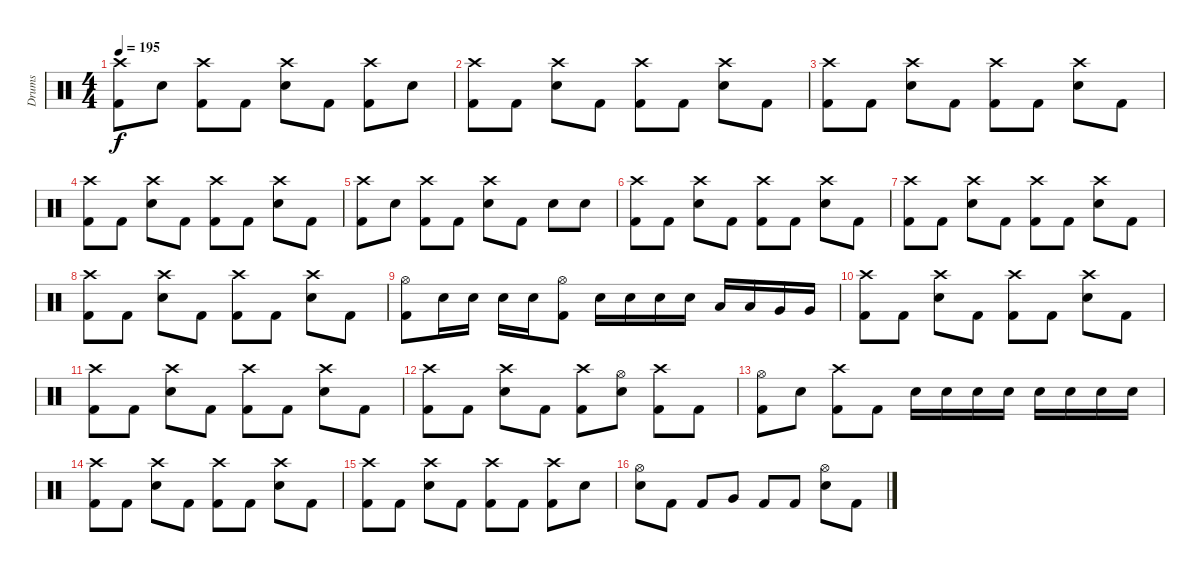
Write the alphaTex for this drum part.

\track ("Drums" "Drums") {instrument percussion}
\staff {score}
\articulation defaults
\ts (4 4)
\tempo 195
\clef neutral
\ks c
("Crash high (hit)" "Kick (hit) 2").8{dy f} "Electric Snare (hit)".8 ("Crash high (hit)" "Kick (hit) 2").8 "Kick (hit) 2".8 ("Crash high (hit)" "Electric Snare (hit)").8 "Kick (hit) 2".8 ("Crash high (hit)" "Kick (hit) 2").8 "Electric Snare (hit)".8 |
("Crash high (hit)" "Kick (hit) 2").8 "Kick (hit) 2".8 ("Crash high (hit)" "Electric Snare (hit)").8 "Kick (hit) 2".8 ("Crash high (hit)" "Kick (hit) 2").8 "Kick (hit) 2".8 ("Crash high (hit)" "Electric Snare (hit)").8 "Kick (hit) 2".8 |
("Crash high (hit)" "Kick (hit) 2").8 "Kick (hit) 2".8 ("Crash high (hit)" "Electric Snare (hit)").8 "Kick (hit) 2".8 ("Crash high (hit)" "Kick (hit) 2").8 "Kick (hit) 2".8 ("Crash high (hit)" "Electric Snare (hit)").8 "Kick (hit) 2".8 |
("Crash high (hit)" "Kick (hit) 2").8 "Kick (hit) 2".8 ("Crash high (hit)" "Electric Snare (hit)").8 "Kick (hit) 2".8 ("Crash high (hit)" "Kick (hit) 2").8 "Kick (hit) 2".8 ("Crash high (hit)" "Electric Snare (hit)").8 "Kick (hit) 2".8 |
("Crash high (hit)" "Kick (hit) 2").8 "Electric Snare (hit)".8 ("Crash high (hit)" "Kick (hit) 2").8 "Kick (hit) 2".8 ("Crash high (hit)" "Electric Snare (hit)").8 "Kick (hit) 2".8 "Electric Snare (hit)".8 "Electric Snare (hit)".8 |
("Crash high (hit)" "Kick (hit) 2").8 "Kick (hit) 2".8 ("Crash high (hit)" "Electric Snare (hit)").8 "Kick (hit) 2".8 ("Crash high (hit)" "Kick (hit) 2").8 "Kick (hit) 2".8 ("Crash high (hit)" "Electric Snare (hit)").8 "Kick (hit) 2".8 |
("Crash high (hit)" "Kick (hit) 2").8 "Kick (hit) 2".8 ("Crash high (hit)" "Electric Snare (hit)").8 "Kick (hit) 2".8 ("Crash high (hit)" "Kick (hit) 2").8 "Kick (hit) 2".8 ("Crash high (hit)" "Electric Snare (hit)").8 "Kick (hit) 2".8 |
("Crash high (hit)" "Kick (hit) 2").8 "Kick (hit) 2".8 ("Crash high (hit)" "Electric Snare (hit)").8 "Kick (hit) 2".8 ("Crash high (hit)" "Kick (hit) 2").8 "Kick (hit) 2".8 ("Crash high (hit)" "Electric Snare (hit)").8 "Kick (hit) 2".8 |
("Hi-Hat (open)" "Kick (hit) 2").8 "Electric Snare (hit)".16 "Electric Snare (hit)".16 "Electric Snare (hit)".16 "Electric Snare (hit)".16 ("Hi-Hat (open)" "Kick (hit) 2").8 "Electric Snare (hit)".16 "Electric Snare (hit)".16 "Electric Snare (hit)".16 "Electric Snare (hit)".16 "Low Tom (hit)".16 "Low Tom (hit)".16 "Very Low Tom (hit)".16 "Very Low Tom (hit)".16 |
("Crash high (hit)" "Kick (hit) 2").8 "Kick (hit) 2".8 ("Crash high (hit)" "Electric Snare (hit)").8 "Kick (hit) 2".8 ("Crash high (hit)" "Kick (hit) 2").8 "Kick (hit) 2".8 ("Crash high (hit)" "Electric Snare (hit)").8 "Kick (hit) 2".8 |
("Crash high (hit)" "Kick (hit) 2").8 "Kick (hit) 2".8 ("Crash high (hit)" "Electric Snare (hit)").8 "Kick (hit) 2".8 ("Crash high (hit)" "Kick (hit) 2").8 "Kick (hit) 2".8 ("Crash high (hit)" "Electric Snare (hit)").8 "Kick (hit) 2".8 |
("Crash high (hit)" "Kick (hit) 2").8 "Kick (hit) 2".8 ("Crash high (hit)" "Electric Snare (hit)").8 "Kick (hit) 2".8 ("Crash high (hit)" "Kick (hit) 2").8 ("Hi-Hat (open)" "Electric Snare (hit)").8 ("Crash high (hit)" "Kick (hit) 2").8 "Kick (hit) 2".8 |
("Hi-Hat (open)" "Kick (hit) 2").8 "Electric Snare (hit)".8 ("Crash high (hit)" "Kick (hit) 2").8 "Kick (hit) 2".8 "Electric Snare (hit)".16 "Electric Snare (hit)".16 "Electric Snare (hit)".16 "Electric Snare (hit)".16 "Electric Snare (hit)".16 "Electric Snare (hit)".16 "Electric Snare (hit)".16 "Electric Snare (hit)".16 |
("Crash high (hit)" "Kick (hit) 2").8 "Kick (hit) 2".8 ("Crash high (hit)" "Electric Snare (hit)").8 "Kick (hit) 2".8 ("Crash high (hit)" "Kick (hit) 2").8 "Kick (hit) 2".8 ("Crash high (hit)" "Electric Snare (hit)").8 "Kick (hit) 2".8 |
("Crash high (hit)" "Kick (hit) 2").8 "Kick (hit) 2".8 ("Crash high (hit)" "Electric Snare (hit)").8 "Kick (hit) 2".8 ("Crash high (hit)" "Kick (hit) 2").8 "Kick (hit) 2".8 ("Crash high (hit)" "Kick (hit) 2").8 "Electric Snare (hit)".8 |
("Hi-Hat (open)" "Electric Snare (hit)").8 "Kick (hit) 2".8 "Kick (hit) 2".8 "Very Low Tom (hit)".8 "Kick (hit) 2".8 "Kick (hit) 2".8 ("Hi-Hat (open)" "Electric Snare (hit)").8 "Kick (hit) 2".8
